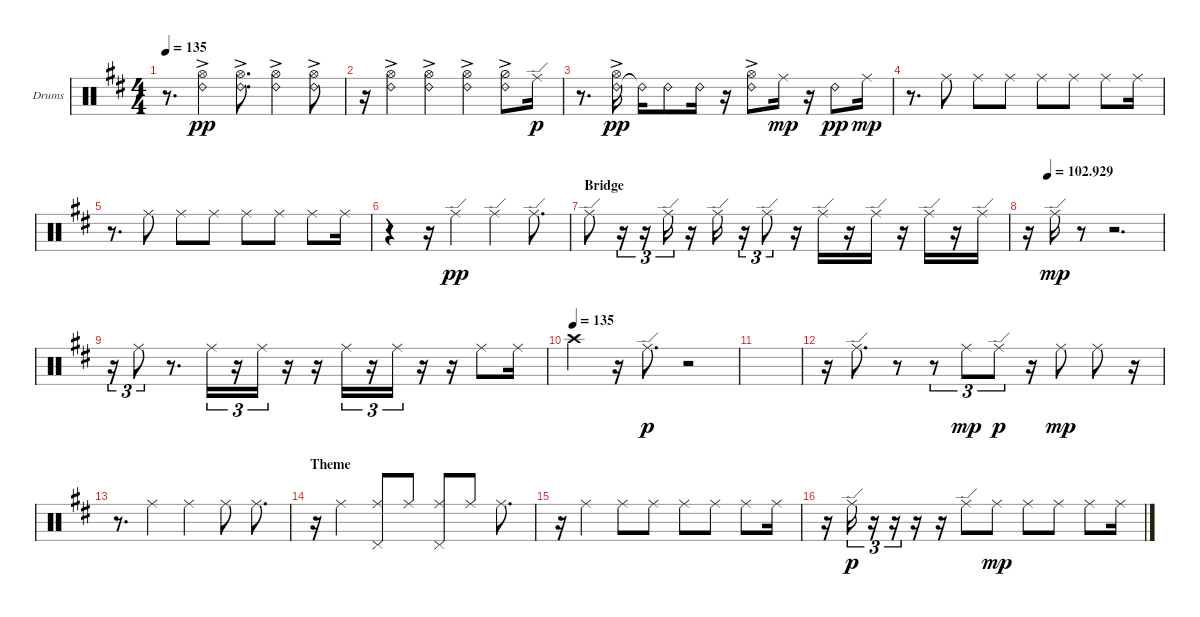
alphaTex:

\bracketExtendMode groupsimilarinstruments
\firstSystemTrackNameOrientation horizontal
\otherSystemsTrackNameOrientation horizontal
\track ("OH" "Drums") {instrument percussion}
\staff {score}
\articulation defaults
\ts (4 4)
\tempo 135
\clef neutral
\ks d
r.8{d dy mp} ("Ride (bell) 2" "Hi-Hat (open)"{ac}).4{dy pp} ("Ride (bell) 2" "Hi-Hat (open)"{ac}).8{d} ("Ride (bell) 2" "Hi-Hat (open)"{ac}).4 ("Ride (bell) 2" "Hi-Hat (open)"{ac}).8 |
r.16 ("Ride (bell) 2" "Hi-Hat (open)"{ac}).4 ("Ride (bell) 2" "Hi-Hat (open)"{ac}).4 ("Ride (bell) 2" "Hi-Hat (open)"{ac}).4 ("Ride (bell) 2" "Hi-Hat (half)"{ac}).8 "Ride (edge)".16{dy p} |
r.8{d} ("Ride (bell) 2" "Hi-Hat (open)"{ac}).16{dy pp} "Ride (bell) 2"{t}.16 "Ride (bell) 2".8 "Ride (bell) 2".16 r.16 ("Ride (bell) 2" "Hi-Hat (open)"{ac}).8 "Ride (middle)".16{dy mp} r.16 "Ride (bell) 2".8{dy pp} "Ride (middle)".16{dy mp} |
r.8{d} "Ride (middle)".8 "Ride (middle)".8 "Ride (middle)".8 "Ride (middle)".8 "Ride (middle)".8 "Ride (middle)".8 "Ride (middle)".16 |
r.8{d} "Ride (middle)".8 "Ride (middle)".8 "Ride (middle)".8 "Ride (middle)".8 "Ride (middle)".8 "Ride (middle)".8 "Ride (middle)".16 |
r.4 r.16 "Ride (edge)".4{dy pp} "Ride (edge)".4 "Ride (edge)".8{d} |
\section ("" "Bridge")
"Ride (edge)".8 r.16{tu (3 2)} r.16{tu (3 2)} "Ride (edge)".16{tu (3 2)} r.16 "Ride (edge)".16 r.16{tu (3 2)} "Ride (edge)".8{tu (3 2)} r.16 "Ride (edge)".16 r.16 "Ride (edge)".16 r.16 "Ride (edge)".16 r.16 "Ride (edge)".16 |
\tempo (102.929 0.15)
r.16 "Ride (edge)".16{dy mp} r.8 r.2{d} |
r.16{tu (3 2)} "Ride (middle)".8{tu (3 2)} r.8{d} "Ride (middle)".16{tu (3 2)} r.16{tu (3 2)} "Ride (middle)".16{tu (3 2)} r.16 r.16 "Ride (middle)".16{tu (3 2)} r.16{tu (3 2)} "Ride (middle)".16{tu (3 2)} r.16 r.16 "Ride (middle)".8 "Ride (middle)".16 |
\tempo (135)
"Crash high (hit)".4 r.16 "Ride (edge)".8{d dy p} r.2 |
|
r.16 "Ride (edge)".8{d} r.8 r.8{tu (3 2)} "Ride (middle)".8{tu (3 2) dy mp} "Ride (edge)".8{tu (3 2) dy p} r.16 "Ride (middle)".8{dy mp} "Ride (middle)".8 r.16 |
r.8{d} "Ride (middle)".4 "Ride (middle)".4 "Ride (middle)".8 "Ride (middle)".8{d} |
\section ("" "Theme")
r.16 "Ride (middle)".4 ("Pedal Hi-Hat (hit)" "Ride (middle)").8 "Ride (middle)".8 ("Ride (middle)" "Pedal Hi-Hat (hit)").8 "Ride (middle)".8 "Ride (middle)".8{d} |
r.16 "Ride (middle)".4 "Ride (middle)".8 "Ride (middle)".8 "Ride (middle)".8 "Ride (middle)".8 "Ride (middle)".8 "Ride (middle)".16 |
r.16 "Ride (edge)".16{tu (3 2) dy p} r.16{tu (3 2)} r.16{tu (3 2)} r.16 r.16 "Ride (edge)".8 "Ride (middle)".8{dy mp} "Ride (middle)".8 "Ride (middle)".8 "Ride (middle)".8 "Ride (middle)".16
